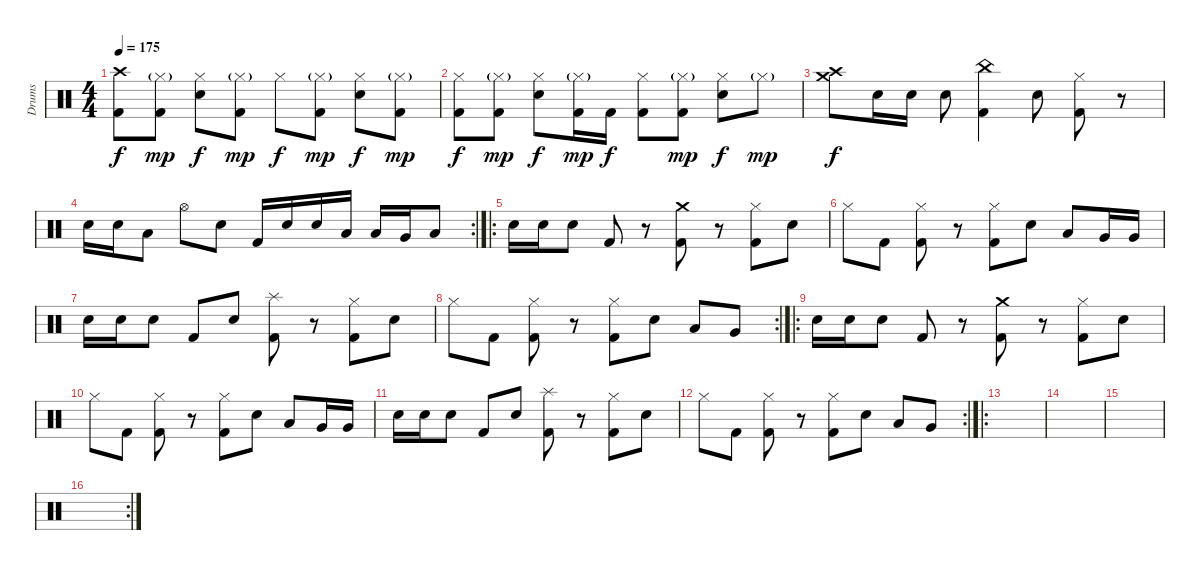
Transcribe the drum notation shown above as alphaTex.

\track ("Drums" "Drums") {instrument percussion}
\staff {score}
\articulation defaults
\ts (4 4)
\tempo 175
\clef neutral
\ks c
("Crash high (hit)" "Kick (hit) 2").8{dy f} ("Hi-Hat (closed)"{g} "Kick (hit) 2").8{dy mp} ("Hi-Hat (closed)" "Electric Snare (hit)").8{dy f} ("Hi-Hat (closed)"{g} "Kick (hit) 2").8{dy mp} "Hi-Hat (closed)".8{dy f} ("Hi-Hat (closed)"{g} "Kick (hit) 2").8{dy mp} ("Hi-Hat (closed)" "Electric Snare (hit)").8{dy f} ("Hi-Hat (closed)"{g} "Kick (hit) 2").8{dy mp} |
("Hi-Hat (closed)" "Kick (hit) 2").8{dy f} ("Hi-Hat (closed)"{g} "Kick (hit) 2").8{dy mp} ("Hi-Hat (closed)" "Electric Snare (hit)").8{dy f} ("Hi-Hat (closed)"{g} "Kick (hit) 2").16{dy mp} "Kick (hit) 2".16{dy f} ("Hi-Hat (closed)" "Kick (hit) 2").8 ("Hi-Hat (closed)"{g} "Kick (hit) 2").8{dy mp} ("Hi-Hat (closed)" "Electric Snare (hit)").8{dy f} "Hi-Hat (closed)"{g}.8{dy mp} |
("Crash medium (hit)" "Crash high (hit)").8{dy f} "Electric Snare (hit)".16 "Electric Snare (hit)".16 "Electric Snare (hit)".8 ("China (hit)" "Kick (hit) 2").4 "Electric Snare (hit)".8 ("Hi-Hat (closed)" "Kick (hit) 2").8 r.8 |
\rc 2 "Electric Snare (hit)".16 "Electric Snare (hit)".16 "Low Tom (hit)".8 "Hi-Hat (open)".8 "Electric Snare (hit)".8 "Kick (hit) 2".16 "Electric Snare (hit)".16 "Electric Snare (hit)".16 "Low Tom (hit)".16 "Low Tom (hit)".16 "Very Low Tom (hit)".16 "Low Floor Tom (hit)".8
|
\ro "Electric Snare (hit)".16 "Electric Snare (hit)".16 "Electric Snare (hit)".8 "Kick (hit) 2".8
r.8 ("Crash medium (hit)" "Kick (hit) 2").8 r.8 ("Hi-Hat (closed)" "Kick (hit) 2").8 "Electric Snare (hit)".8 |
"Hi-Hat (closed)".8 "Kick (hit) 2".8 ("Hi-Hat (closed)" "Kick (hit) 2").8 r.8 ("Hi-Hat (closed)" "Kick (hit) 2").8 "Electric Snare (hit)".8 "Low Tom (hit)".8 "Very Low Tom (hit)".16 "Very Low Tom (hit)".16 |
"Electric Snare (hit)".16 "Electric Snare (hit)".16 "Electric Snare (hit)".8 "Kick (hit) 2".8 "Electric Snare (hit)".8 ("Splash (hit)" "Kick (hit) 2").8 r.8 ("Hi-Hat (closed)" "Kick (hit) 2").8 "Electric Snare (hit)".8 |
\rc 2 "Hi-Hat (closed)".8 "Kick (hit) 2".8
("Hi-Hat (closed)" "Kick (hit) 2").8 r.8 ("Hi-Hat (closed)" "Kick (hit) 2").8 "Electric Snare (hit)".8 "Low Tom (hit)".8 "Very Low Tom (hit)".8 |
\ro "Electric Snare (hit)".16 "Electric Snare (hit)".16 "Electric Snare (hit)".8 "Kick (hit) 2".8
r.8 ("Crash medium (hit)" "Kick (hit) 2").8 r.8 ("Hi-Hat (closed)" "Kick (hit) 2").8 "Electric Snare (hit)".8 |
"Hi-Hat (closed)".8 "Kick (hit) 2".8 ("Hi-Hat (closed)" "Kick (hit) 2").8 r.8 ("Hi-Hat (closed)" "Kick (hit) 2").8 "Electric Snare (hit)".8 "Low Tom (hit)".8 "Very Low Tom (hit)".16 "Very Low Tom (hit)".16 |
"Electric Snare (hit)".16 "Electric Snare (hit)".16 "Electric Snare (hit)".8 "Kick (hit) 2".8 "Electric Snare (hit)".8 ("Splash (hit)" "Kick (hit) 2").8 r.8 ("Hi-Hat (closed)" "Kick (hit) 2").8 "Electric Snare (hit)".8 |
\rc 2 "Hi-Hat (closed)".8 "Kick (hit) 2".8
("Hi-Hat (closed)" "Kick (hit) 2").8 r.8 ("Hi-Hat (closed)" "Kick (hit) 2").8 "Electric Snare (hit)".8 "Low Tom (hit)".8 "Very Low Tom (hit)".8 |
\ro
|
|
|
\rc 2
